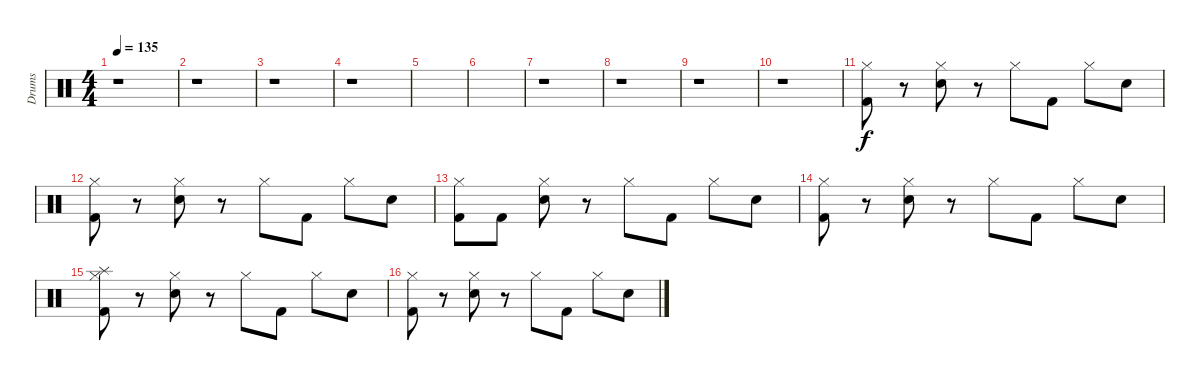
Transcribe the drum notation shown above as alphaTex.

\track ("Drums" "Drums") {instrument percussion}
\staff {score}
\articulation defaults
\ts (4 4)
\tempo 135
\clef neutral
\ks c
r.1{dy f} |
r.1 |
r.1 |
r.1 |
|
|
r.1 |
r.1 |
r.1 |
r.1 |
("Hi-Hat (closed)" "Kick (hit) 2").8 r.8 ("Hi-Hat (closed)" "Snare (hit) 2").8 r.8 "Hi-Hat (closed)".8 "Kick (hit) 2".8 "Hi-Hat (closed)".8 "Snare (hit) 2".8 |
("Hi-Hat (closed)" "Kick (hit) 2").8 r.8 ("Hi-Hat (closed)" "Snare (hit) 2").8 r.8 "Hi-Hat (closed)".8 "Kick (hit) 2".8 "Hi-Hat (closed)".8 "Snare (hit) 2".8 |
("Hi-Hat (closed)" "Kick (hit) 2").8 "Kick (hit) 2".8 ("Hi-Hat (closed)" "Snare (hit) 2").8 r.8 "Hi-Hat (closed)".8 "Kick (hit) 2".8 "Hi-Hat (closed)".8 "Snare (hit) 2".8 |
("Hi-Hat (closed)" "Kick (hit) 2").8 r.8 ("Hi-Hat (closed)" "Snare (hit) 2").8 r.8 "Hi-Hat (closed)".8 "Kick (hit) 2".8 "Hi-Hat (closed)".8 "Snare (hit) 2".8 |
("Hi-Hat (closed)" "Splash (hit)" "Kick (hit) 2").8 r.8 ("Hi-Hat (closed)" "Snare (hit) 2").8 r.8 "Hi-Hat (closed)".8 "Kick (hit) 2".8 "Hi-Hat (closed)".8 "Snare (hit) 2".8 |
("Hi-Hat (closed)" "Kick (hit) 2").8 r.8 ("Hi-Hat (closed)" "Snare (hit) 2").8 r.8 "Hi-Hat (closed)".8 "Kick (hit) 2".8 "Hi-Hat (closed)".8 "Snare (hit) 2".8
